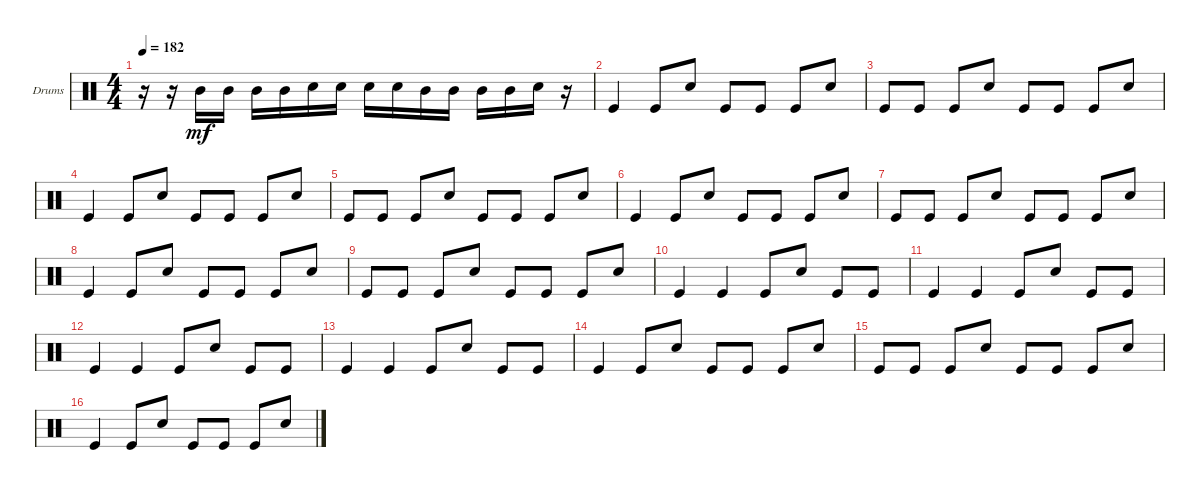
\defaultSystemsLayout 4
\bracketExtendMode groupsimilarinstruments
\firstSystemTrackNameOrientation horizontal
\otherSystemsTrackNameOrientation horizontal
\track ("Drumkit" "Drums") {instrument percussion}
\staff {score}
\articulation defaults
\ts (4 4)
\tempo 182
\clef neutral
\ks c
r.16{dy mf} r.16 "Mid Tom (hit)".16 "Mid Tom (hit)".16 "Mid Tom (hit)".16 "Mid Tom (hit)".16 "Snare (hit) 2".16 "Snare (hit) 2".16 "Snare (hit) 2".16 "Snare (hit) 2".16 "Mid Tom (hit)".16 "Mid Tom (hit)".16 "Mid Tom (hit)".16 "Mid Tom (hit)".16 "Snare (hit) 2".16 r.16 |
"Kick (hit)".4 "Kick (hit)".8 "Snare (hit) 2".8 "Kick (hit)".8 "Kick (hit)".8 "Kick (hit)".8 "Snare (hit) 2".8 |
"Kick (hit)".8 "Kick (hit)".8 "Kick (hit)".8 "Snare (hit) 2".8 "Kick (hit)".8 "Kick (hit)".8 "Kick (hit)".8 "Snare (hit) 2".8 |
"Kick (hit)".4 "Kick (hit)".8 "Snare (hit) 2".8 "Kick (hit)".8 "Kick (hit)".8 "Kick (hit)".8 "Snare (hit) 2".8 |
"Kick (hit)".8 "Kick (hit)".8 "Kick (hit)".8 "Snare (hit) 2".8 "Kick (hit)".8 "Kick (hit)".8 "Kick (hit)".8 "Snare (hit) 2".8 |
"Kick (hit)".4 "Kick (hit)".8 "Snare (hit) 2".8 "Kick (hit)".8 "Kick (hit)".8 "Kick (hit)".8 "Snare (hit) 2".8 |
"Kick (hit)".8 "Kick (hit)".8 "Kick (hit)".8 "Snare (hit) 2".8 "Kick (hit)".8 "Kick (hit)".8 "Kick (hit)".8 "Snare (hit) 2".8 |
"Kick (hit)".4 "Kick (hit)".8 "Snare (hit) 2".8 "Kick (hit)".8 "Kick (hit)".8 "Kick (hit)".8 "Snare (hit) 2".8 |
"Kick (hit)".8 "Kick (hit)".8 "Kick (hit)".8 "Snare (hit) 2".8 "Kick (hit)".8 "Kick (hit)".8 "Kick (hit)".8 "Snare (hit) 2".8 |
"Kick (hit)".4 "Kick (hit)".4 "Kick (hit)".8 "Snare (hit) 2".8 "Kick (hit)".8 "Kick (hit)".8 |
"Kick (hit)".4 "Kick (hit)".4 "Kick (hit)".8 "Snare (hit) 2".8 "Kick (hit)".8 "Kick (hit)".8 |
"Kick (hit)".4 "Kick (hit)".4 "Kick (hit)".8 "Snare (hit) 2".8 "Kick (hit)".8 "Kick (hit)".8 |
"Kick (hit)".4 "Kick (hit)".4 "Kick (hit)".8 "Snare (hit) 2".8 "Kick (hit)".8 "Kick (hit)".8 |
"Kick (hit)".4 "Kick (hit)".8 "Snare (hit) 2".8 "Kick (hit)".8 "Kick (hit)".8 "Kick (hit)".8 "Snare (hit) 2".8 |
"Kick (hit)".8 "Kick (hit)".8 "Kick (hit)".8 "Snare (hit) 2".8 "Kick (hit)".8 "Kick (hit)".8 "Kick (hit)".8 "Snare (hit) 2".8 |
"Kick (hit)".4 "Kick (hit)".8 "Snare (hit) 2".8 "Kick (hit)".8 "Kick (hit)".8 "Kick (hit)".8 "Snare (hit) 2".8
